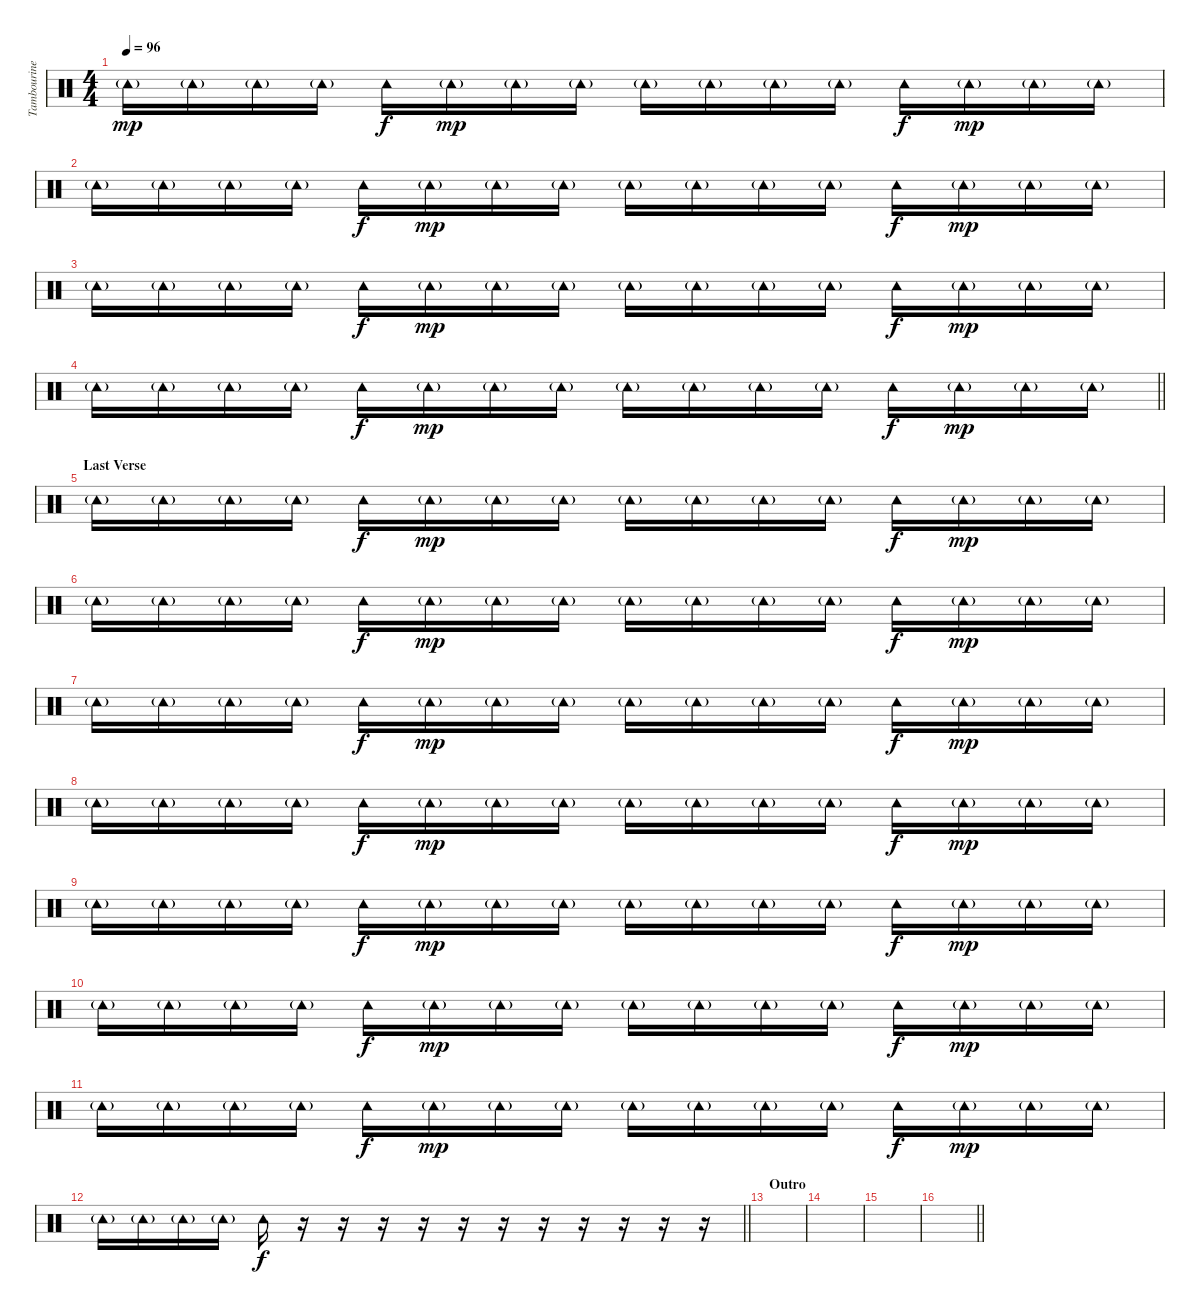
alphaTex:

\track ("Tambourine" "Tambourine") {instrument percussion}
\staff {score}
\articulation defaults
\ts (4 4)
\tempo 96
\clef neutral
\ks c "Tambourine (hit)"{g}.16{dy mp} "Tambourine (hit)"{g}.16 "Tambourine (hit)"{g}.16 "Tambourine (hit)"{g}.16 "Tambourine (hit)".16{dy f} "Tambourine (hit)"{g}.16{dy mp} "Tambourine (hit)"{g}.16 "Tambourine (hit)"{g}.16 "Tambourine (hit)"{g}.16 "Tambourine (hit)"{g}.16 "Tambourine (hit)"{g}.16 "Tambourine (hit)"{g}.16 "Tambourine (hit)".16{dy f} "Tambourine (hit)"{g}.16{dy mp} "Tambourine (hit)"{g}.16 "Tambourine (hit)"{g}.16
|
"Tambourine (hit)"{g}.16 "Tambourine (hit)"{g}.16 "Tambourine (hit)"{g}.16 "Tambourine (hit)"{g}.16 "Tambourine (hit)".16{dy f} "Tambourine (hit)"{g}.16{dy mp} "Tambourine (hit)"{g}.16 "Tambourine (hit)"{g}.16 "Tambourine (hit)"{g}.16 "Tambourine (hit)"{g}.16 "Tambourine (hit)"{g}.16 "Tambourine (hit)"{g}.16 "Tambourine (hit)".16{dy f} "Tambourine (hit)"{g}.16{dy mp} "Tambourine (hit)"{g}.16 "Tambourine (hit)"{g}.16 |
"Tambourine (hit)"{g}.16 "Tambourine (hit)"{g}.16 "Tambourine (hit)"{g}.16 "Tambourine (hit)"{g}.16 "Tambourine (hit)".16{dy f} "Tambourine (hit)"{g}.16{dy mp} "Tambourine (hit)"{g}.16 "Tambourine (hit)"{g}.16 "Tambourine (hit)"{g}.16 "Tambourine (hit)"{g}.16 "Tambourine (hit)"{g}.16 "Tambourine (hit)"{g}.16 "Tambourine (hit)".16{dy f} "Tambourine (hit)"{g}.16{dy mp} "Tambourine (hit)"{g}.16 "Tambourine (hit)"{g}.16 |
\barLineRight lightlight "Tambourine (hit)"{g}.16 "Tambourine (hit)"{g}.16 "Tambourine (hit)"{g}.16 "Tambourine (hit)"{g}.16 "Tambourine (hit)".16{dy f} "Tambourine (hit)"{g}.16{dy mp} "Tambourine (hit)"{g}.16 "Tambourine (hit)"{g}.16 "Tambourine (hit)"{g}.16 "Tambourine (hit)"{g}.16 "Tambourine (hit)"{g}.16 "Tambourine (hit)"{g}.16 "Tambourine (hit)".16{dy f} "Tambourine (hit)"{g}.16{dy mp} "Tambourine (hit)"{g}.16 "Tambourine (hit)"{g}.16
|
\section ("" "Last Verse")
"Tambourine (hit)"{g}.16 "Tambourine (hit)"{g}.16 "Tambourine (hit)"{g}.16 "Tambourine (hit)"{g}.16 "Tambourine (hit)".16{dy f} "Tambourine (hit)"{g}.16{dy mp} "Tambourine (hit)"{g}.16 "Tambourine (hit)"{g}.16 "Tambourine (hit)"{g}.16 "Tambourine (hit)"{g}.16 "Tambourine (hit)"{g}.16 "Tambourine (hit)"{g}.16 "Tambourine (hit)".16{dy f} "Tambourine (hit)"{g}.16{dy mp} "Tambourine (hit)"{g}.16 "Tambourine (hit)"{g}.16 |
"Tambourine (hit)"{g}.16 "Tambourine (hit)"{g}.16 "Tambourine (hit)"{g}.16 "Tambourine (hit)"{g}.16 "Tambourine (hit)".16{dy f} "Tambourine (hit)"{g}.16{dy mp} "Tambourine (hit)"{g}.16 "Tambourine (hit)"{g}.16 "Tambourine (hit)"{g}.16 "Tambourine (hit)"{g}.16 "Tambourine (hit)"{g}.16 "Tambourine (hit)"{g}.16 "Tambourine (hit)".16{dy f} "Tambourine (hit)"{g}.16{dy mp} "Tambourine (hit)"{g}.16 "Tambourine (hit)"{g}.16 |
"Tambourine (hit)"{g}.16 "Tambourine (hit)"{g}.16 "Tambourine (hit)"{g}.16 "Tambourine (hit)"{g}.16 "Tambourine (hit)".16{dy f} "Tambourine (hit)"{g}.16{dy mp} "Tambourine (hit)"{g}.16 "Tambourine (hit)"{g}.16 "Tambourine (hit)"{g}.16 "Tambourine (hit)"{g}.16 "Tambourine (hit)"{g}.16 "Tambourine (hit)"{g}.16 "Tambourine (hit)".16{dy f} "Tambourine (hit)"{g}.16{dy mp} "Tambourine (hit)"{g}.16 "Tambourine (hit)"{g}.16 |
"Tambourine (hit)"{g}.16 "Tambourine (hit)"{g}.16 "Tambourine (hit)"{g}.16 "Tambourine (hit)"{g}.16 "Tambourine (hit)".16{dy f} "Tambourine (hit)"{g}.16{dy mp} "Tambourine (hit)"{g}.16 "Tambourine (hit)"{g}.16 "Tambourine (hit)"{g}.16 "Tambourine (hit)"{g}.16 "Tambourine (hit)"{g}.16 "Tambourine (hit)"{g}.16 "Tambourine (hit)".16{dy f} "Tambourine (hit)"{g}.16{dy mp} "Tambourine (hit)"{g}.16 "Tambourine (hit)"{g}.16 |
"Tambourine (hit)"{g}.16 "Tambourine (hit)"{g}.16 "Tambourine (hit)"{g}.16 "Tambourine (hit)"{g}.16 "Tambourine (hit)".16{dy f} "Tambourine (hit)"{g}.16{dy mp} "Tambourine (hit)"{g}.16 "Tambourine (hit)"{g}.16 "Tambourine (hit)"{g}.16 "Tambourine (hit)"{g}.16 "Tambourine (hit)"{g}.16 "Tambourine (hit)"{g}.16 "Tambourine (hit)".16{dy f} "Tambourine (hit)"{g}.16{dy mp} "Tambourine (hit)"{g}.16 "Tambourine (hit)"{g}.16 |
"Tambourine (hit)"{g}.16 "Tambourine (hit)"{g}.16 "Tambourine (hit)"{g}.16 "Tambourine (hit)"{g}.16 "Tambourine (hit)".16{dy f} "Tambourine (hit)"{g}.16{dy mp} "Tambourine (hit)"{g}.16 "Tambourine (hit)"{g}.16 "Tambourine (hit)"{g}.16 "Tambourine (hit)"{g}.16 "Tambourine (hit)"{g}.16 "Tambourine (hit)"{g}.16 "Tambourine (hit)".16{dy f} "Tambourine (hit)"{g}.16{dy mp} "Tambourine (hit)"{g}.16 "Tambourine (hit)"{g}.16 |
"Tambourine (hit)"{g}.16 "Tambourine (hit)"{g}.16 "Tambourine (hit)"{g}.16 "Tambourine (hit)"{g}.16 "Tambourine (hit)".16{dy f} "Tambourine (hit)"{g}.16{dy mp} "Tambourine (hit)"{g}.16 "Tambourine (hit)"{g}.16 "Tambourine (hit)"{g}.16 "Tambourine (hit)"{g}.16 "Tambourine (hit)"{g}.16 "Tambourine (hit)"{g}.16 "Tambourine (hit)".16{dy f} "Tambourine (hit)"{g}.16{dy mp} "Tambourine (hit)"{g}.16 "Tambourine (hit)"{g}.16 |
\barLineRight lightlight "Tambourine (hit)"{g}.16 "Tambourine (hit)"{g}.16 "Tambourine (hit)"{g}.16 "Tambourine (hit)"{g}.16 "Tambourine (hit)".16{dy f}
r.16 r.16 r.16 r.16 r.16 r.16 r.16 r.16 r.16 r.16 r.16 |
\section ("" "Outro")
|
|
|
\barLineRight lightlight
